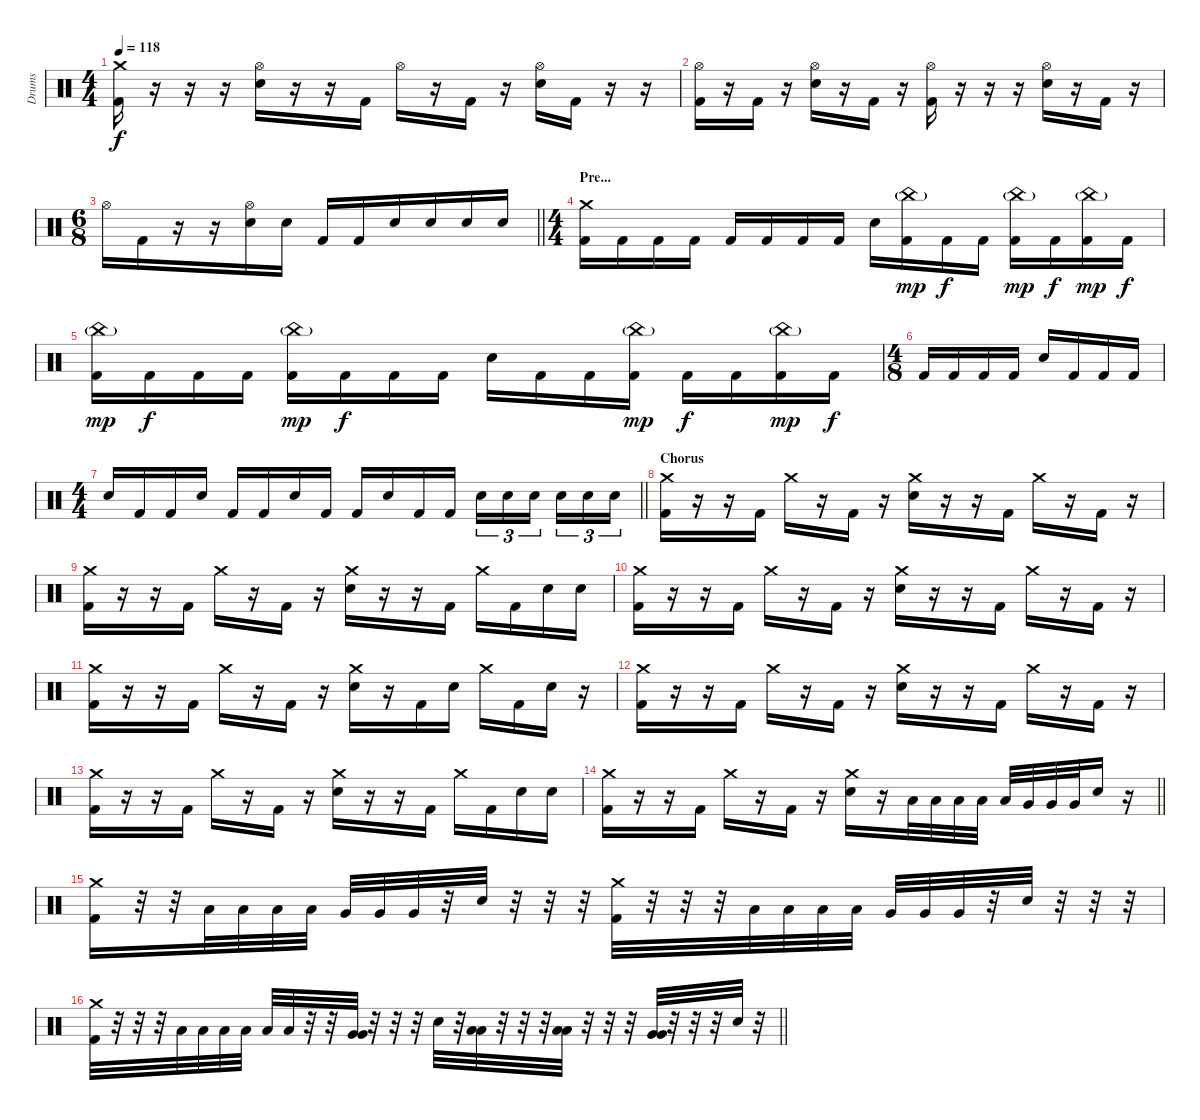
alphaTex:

\track ("Drums" "Drums") {instrument percussion}
\staff {score}
\articulation defaults
\ts (4 4)
\tempo 118
\clef neutral
\ks c
("Crash medium (hit)" "Kick (hit) 2").16{dy f} r.16 r.16 r.16 ("Hi-Hat (open)" "Electric Snare (hit)").16 r.16 r.16 "Kick (hit) 2".16 "Hi-Hat (open)".16 r.16 "Kick (hit) 2".16 r.16 ("Hi-Hat (open)" "Electric Snare (hit)").16 "Kick (hit) 2".16 r.16 r.16 |
("Hi-Hat (open)" "Kick (hit) 2").16 r.16 "Kick (hit) 2".16 r.16 ("Hi-Hat (open)" "Electric Snare (hit)").16 r.16 "Kick (hit) 2".16 r.16 ("Hi-Hat (open)" "Kick (hit) 2").16 r.16 r.16 r.16 ("Hi-Hat (open)" "Electric Snare (hit)").16 r.16 "Kick (hit) 2".16 r.16 |
\ts (6 8)
\barLineRight lightlight "Hi-Hat (open)".16 "Kick (hit) 2".16
r.16 r.16 ("Hi-Hat (open)" "Electric Snare (hit)").16 "Electric Snare (hit)".16 "Kick (hit) 2".16 "Kick (hit) 2".16 "Electric Snare (hit)".16 "Electric Snare (hit)".16 "Electric Snare (hit)".16 "Electric Snare (hit)".16 |
\ts (4 4)
\section ("" "Pre...")
("Crash medium (hit)" "Kick (hit) 2").16 "Kick (hit) 2".16 "Kick (hit) 2".16 "Kick (hit) 2".16 "Kick (hit) 2".16 "Kick (hit) 2".16 "Kick (hit) 2".16 "Kick (hit) 2".16 "Electric Snare (hit)".16 ("China (hit)"{g} "Kick (hit) 2").16{dy mp} "Kick (hit) 2".16{dy f} "Kick (hit) 2".16 ("China (hit)"{g} "Kick (hit) 2").16{dy mp} "Kick (hit) 2".16{dy f} ("China (hit)"{g} "Kick (hit) 2").16{dy mp} "Kick (hit) 2".16{dy f} |
("China (hit)"{g} "Kick (hit) 2").16{dy mp} "Kick (hit) 2".16{dy f} "Kick (hit) 2".16 "Kick (hit) 2".16 ("China (hit)"{g} "Kick (hit) 2").16{dy mp} "Kick (hit) 2".16{dy f} "Kick (hit) 2".16 "Kick (hit) 2".16 "Electric Snare (hit)".16 "Kick (hit) 2".16 "Kick (hit) 2".16 ("China (hit)"{g} "Kick (hit) 2").16{dy mp} "Kick (hit) 2".16{dy f} "Kick (hit) 2".16 ("China (hit)"{g} "Kick (hit) 2").16{dy mp} "Kick (hit) 2".16{dy f} |
\ts (4 8)
"Kick (hit) 2".16 "Kick (hit) 2".16 "Kick (hit) 2".16 "Kick (hit) 2".16 "Electric Snare (hit)".16 "Kick (hit) 2".16 "Kick (hit) 2".16 "Kick (hit) 2".16 |
\ts (4 4)
\barLineRight lightlight "Electric Snare (hit)".16 "Kick (hit) 2".16 "Kick (hit) 2".16 "Electric Snare (hit)".16 "Kick (hit) 2".16 "Kick (hit) 2".16 "Electric Snare (hit)".16 "Kick (hit) 2".16 "Kick (hit) 2".16 "Electric Snare (hit)".16 "Kick (hit) 2".16 "Kick (hit) 2".16 "Electric Snare (hit)".16{tu (3 2)} "Electric Snare (hit)".16{tu (3 2)} "Electric Snare (hit)".16{tu (3 2) beam splitsecondary} "Electric Snare (hit)".16{tu (3 2)} "Electric Snare (hit)".16{tu (3 2)} "Electric Snare (hit)".16{tu (3 2)}
|
\section ("" "Chorus")
("Crash medium (hit)" "Kick (hit) 2").16 r.16 r.16 "Kick (hit) 2".16 "Crash medium (hit)".16 r.16 "Kick (hit) 2".16 r.16 ("Crash medium (hit)" "Electric Snare (hit)").16 r.16 r.16 "Kick (hit) 2".16 "Crash medium (hit)".16 r.16 "Kick (hit) 2".16 r.16 |
("Crash medium (hit)" "Kick (hit) 2").16 r.16 r.16 "Kick (hit) 2".16 "Crash medium (hit)".16 r.16 "Kick (hit) 2".16 r.16 ("Crash medium (hit)" "Electric Snare (hit)").16 r.16 r.16 "Kick (hit) 2".16 "Crash medium (hit)".16 "Kick (hit) 2".16 "Electric Snare (hit)".16 "Electric Snare (hit)".16 |
("Crash medium (hit)" "Kick (hit) 2").16 r.16 r.16 "Kick (hit) 2".16 "Crash medium (hit)".16 r.16 "Kick (hit) 2".16 r.16 ("Crash medium (hit)" "Electric Snare (hit)").16 r.16 r.16 "Kick (hit) 2".16 "Crash medium (hit)".16 r.16 "Kick (hit) 2".16 r.16 |
("Crash medium (hit)" "Kick (hit) 2").16 r.16 r.16 "Kick (hit) 2".16 "Crash medium (hit)".16 r.16 "Kick (hit) 2".16 r.16 ("Crash medium (hit)" "Electric Snare (hit)").16 r.16 "Kick (hit) 2".16 "Electric Snare (hit)".16 "Crash medium (hit)".16 "Kick (hit) 2".16 "Electric Snare (hit)".16 r.16 |
("Crash medium (hit)" "Kick (hit) 2").16 r.16 r.16 "Kick (hit) 2".16 "Crash medium (hit)".16 r.16 "Kick (hit) 2".16 r.16 ("Crash medium (hit)" "Electric Snare (hit)").16 r.16 r.16 "Kick (hit) 2".16 "Crash medium (hit)".16 r.16 "Kick (hit) 2".16 r.16 |
("Crash medium (hit)" "Kick (hit) 2").16 r.16 r.16 "Kick (hit) 2".16 "Crash medium (hit)".16 r.16 "Kick (hit) 2".16 r.16 ("Crash medium (hit)" "Electric Snare (hit)").16 r.16 r.16 "Kick (hit) 2".16 "Crash medium (hit)".16 "Kick (hit) 2".16 "Electric Snare (hit)".16 "Electric Snare (hit)".16 |
\barLineRight lightlight
("Crash medium (hit)" "Kick (hit) 2").16 r.16 r.16 "Kick (hit) 2".16 "Crash medium (hit)".16 r.16 "Kick (hit) 2".16 r.16 ("Crash medium (hit)" "Electric Snare (hit)").16 r.16 "Low Tom (hit)".32 "Low Tom (hit)".32 "Low Tom (hit)".32 "Low Tom (hit)".32 "Low Tom (hit)".32 "Very Low Tom (hit)".32 "Very Low Tom (hit)".32 "Very Low Tom (hit)".32 "Electric Snare (hit)".16 r.16 |
("Crash medium (hit)" "Kick (hit) 2").16 r.32 r.32 "Low Tom (hit)".32 "Low Tom (hit)".32 "Low Tom (hit)".32 "Low Tom (hit)".32 "Very Low Tom (hit)".32 "Very Low Tom (hit)".32 "Very Low Tom (hit)".32 r.32 "Electric Snare (hit)".32 r.32 r.32 r.32 ("Crash medium (hit)" "Kick (hit) 2").32 r.32 r.32 r.32 "Low Tom (hit)".32 "Low Tom (hit)".32 "Low Tom (hit)".32 "Low Tom (hit)".32 "Very Low Tom (hit)".32 "Very Low Tom (hit)".32 "Very Low Tom (hit)".32 r.32 "Electric Snare (hit)".32 r.32 r.32 r.32 |
\barLineRight lightlight
("Crash medium (hit)" "Kick (hit) 2").32 r.32 r.32 r.32 "Low Tom (hit)".32 "Low Tom (hit)".32 "Low Tom (hit)".32 "Low Tom (hit)".32 "Low Tom (hit)".32 "Low Tom (hit)".32 r.32 r.32 ("Very Low Tom (hit)" "Very Low Tom (hit)").32 r.32 r.32 r.32 "Electric Snare (hit)".32 r.32 ("Low Tom (hit)" "Low Tom (hit)").32 r.32 r.32 r.32 ("Low Tom (hit)" "Low Tom (hit)").32 r.32 r.32 r.32 ("Very Low Tom (hit)" "Very Low Tom (hit)").32 r.32 r.32 r.32 "Electric Snare (hit)".32 r.32
